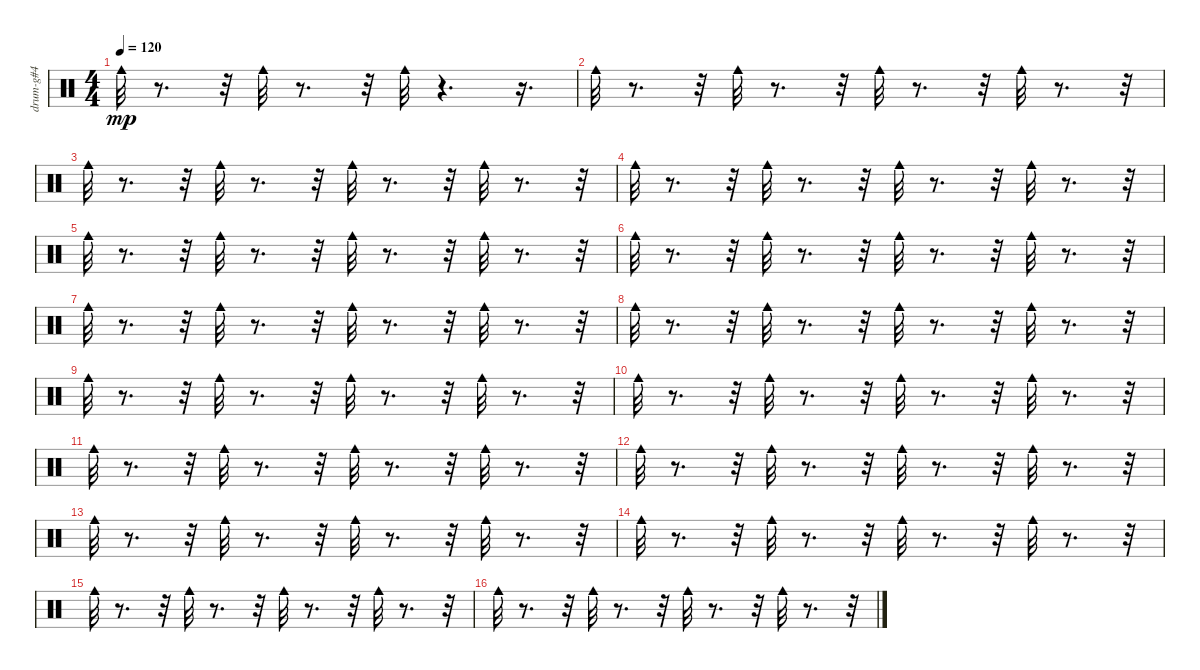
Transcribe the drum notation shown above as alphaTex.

\track ("drum-g#4" "drum-g#4") {instrument percussion}
\staff {score}
\articulation defaults
\ts (4 4)
\tempo 120
\clef neutral
\ks c "Cowbell medium (hit)".32{dy mp}
r.8{d} r.32 "Cowbell medium (hit)".32 r.8{d} r.32 "Cowbell medium (hit)".32 r.4{d} r.16{d} |
"Cowbell medium (hit)".32 r.8{d} r.32 "Cowbell medium (hit)".32 r.8{d} r.32 "Cowbell medium (hit)".32 r.8{d} r.32 "Cowbell medium (hit)".32 r.8{d} r.32 |
"Cowbell medium (hit)".32 r.8{d} r.32 "Cowbell medium (hit)".32 r.8{d} r.32 "Cowbell medium (hit)".32 r.8{d} r.32 "Cowbell medium (hit)".32 r.8{d} r.32 |
"Cowbell medium (hit)".32 r.8{d} r.32 "Cowbell medium (hit)".32 r.8{d} r.32 "Cowbell medium (hit)".32 r.8{d} r.32 "Cowbell medium (hit)".32 r.8{d} r.32 |
"Cowbell medium (hit)".32 r.8{d} r.32 "Cowbell medium (hit)".32 r.8{d} r.32 "Cowbell medium (hit)".32 r.8{d} r.32 "Cowbell medium (hit)".32 r.8{d} r.32 |
"Cowbell medium (hit)".32 r.8{d} r.32 "Cowbell medium (hit)".32 r.8{d} r.32 "Cowbell medium (hit)".32 r.8{d} r.32 "Cowbell medium (hit)".32 r.8{d} r.32 |
"Cowbell medium (hit)".32 r.8{d} r.32 "Cowbell medium (hit)".32 r.8{d} r.32 "Cowbell medium (hit)".32 r.8{d} r.32 "Cowbell medium (hit)".32 r.8{d} r.32 |
"Cowbell medium (hit)".32 r.8{d} r.32 "Cowbell medium (hit)".32 r.8{d} r.32 "Cowbell medium (hit)".32 r.8{d} r.32 "Cowbell medium (hit)".32 r.8{d} r.32 |
"Cowbell medium (hit)".32 r.8{d} r.32 "Cowbell medium (hit)".32 r.8{d} r.32 "Cowbell medium (hit)".32 r.8{d} r.32 "Cowbell medium (hit)".32 r.8{d} r.32 |
"Cowbell medium (hit)".32 r.8{d} r.32 "Cowbell medium (hit)".32 r.8{d} r.32 "Cowbell medium (hit)".32 r.8{d} r.32 "Cowbell medium (hit)".32 r.8{d} r.32 |
"Cowbell medium (hit)".32 r.8{d} r.32 "Cowbell medium (hit)".32 r.8{d} r.32 "Cowbell medium (hit)".32 r.8{d} r.32 "Cowbell medium (hit)".32 r.8{d} r.32 |
"Cowbell medium (hit)".32 r.8{d} r.32 "Cowbell medium (hit)".32 r.8{d} r.32 "Cowbell medium (hit)".32 r.8{d} r.32 "Cowbell medium (hit)".32 r.8{d} r.32 |
"Cowbell medium (hit)".32 r.8{d} r.32 "Cowbell medium (hit)".32 r.8{d} r.32 "Cowbell medium (hit)".32 r.8{d} r.32 "Cowbell medium (hit)".32 r.8{d} r.32 |
"Cowbell medium (hit)".32 r.8{d} r.32 "Cowbell medium (hit)".32 r.8{d} r.32 "Cowbell medium (hit)".32 r.8{d} r.32 "Cowbell medium (hit)".32 r.8{d} r.32 |
"Cowbell medium (hit)".32 r.8{d} r.32 "Cowbell medium (hit)".32 r.8{d} r.32 "Cowbell medium (hit)".32 r.8{d} r.32 "Cowbell medium (hit)".32 r.8{d} r.32 |
"Cowbell medium (hit)".32 r.8{d} r.32 "Cowbell medium (hit)".32 r.8{d} r.32 "Cowbell medium (hit)".32 r.8{d} r.32 "Cowbell medium (hit)".32 r.8{d} r.32
